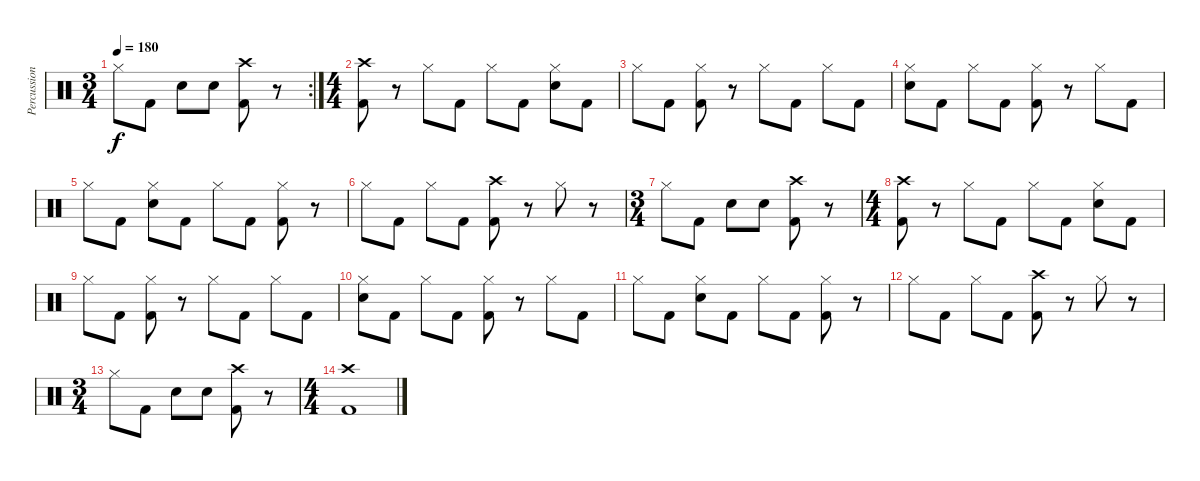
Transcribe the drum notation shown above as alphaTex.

\track ("Percussion" "Percussion") {instrument percussion}
\staff {score}
\articulation defaults
\rc 2
\ts (3 4)
\tempo 180
\clef neutral
\ks c "Hi-Hat (closed)".8{dy f} "Kick (hit) 2".8 "Snare (hit) 2".8 "Snare (hit) 2".8
("Crash high (hit)" "Kick (hit) 2").8 r.8 |
\ts (4 4)
("Crash high (hit)" "Kick (hit) 2").8 r.8 "Hi-Hat (closed)".8 "Kick (hit) 2".8 "Hi-Hat (closed)".8 "Kick (hit) 2".8 ("Hi-Hat (closed)" "Snare (hit) 2").8 "Kick (hit) 2".8 |
"Hi-Hat (closed)".8 "Kick (hit) 2".8 ("Hi-Hat (closed)" "Kick (hit) 2").8 r.8 "Hi-Hat (closed)".8 "Kick (hit) 2".8 "Hi-Hat (closed)".8 "Kick (hit) 2".8 |
("Hi-Hat (closed)" "Snare (hit) 2").8 "Kick (hit) 2".8 "Hi-Hat (closed)".8 "Kick (hit) 2".8 ("Hi-Hat (closed)" "Kick (hit) 2").8 r.8 "Hi-Hat (closed)".8 "Kick (hit) 2".8 |
"Hi-Hat (closed)".8 "Kick (hit) 2".8 ("Hi-Hat (closed)" "Snare (hit) 2").8 "Kick (hit) 2".8 "Hi-Hat (closed)".8 "Kick (hit) 2".8 ("Hi-Hat (closed)" "Kick (hit) 2").8 r.8 |
"Hi-Hat (closed)".8 "Kick (hit) 2".8 "Hi-Hat (closed)".8 "Kick (hit) 2".8 ("Crash high (hit)" "Kick (hit) 2").8 r.8 "Hi-Hat (closed)".8 r.8 |
\ts (3 4)
"Hi-Hat (closed)".8 "Kick (hit) 2".8 "Snare (hit) 2".8 "Snare (hit) 2".8 ("Crash high (hit)" "Kick (hit) 2").8 r.8 |
\ts (4 4)
("Crash high (hit)" "Kick (hit) 2").8 r.8 "Hi-Hat (closed)".8 "Kick (hit) 2".8 "Hi-Hat (closed)".8 "Kick (hit) 2".8 ("Hi-Hat (closed)" "Snare (hit) 2").8 "Kick (hit) 2".8 |
"Hi-Hat (closed)".8 "Kick (hit) 2".8 ("Hi-Hat (closed)" "Kick (hit) 2").8 r.8 "Hi-Hat (closed)".8 "Kick (hit) 2".8 "Hi-Hat (closed)".8 "Kick (hit) 2".8 |
("Hi-Hat (closed)" "Snare (hit) 2").8 "Kick (hit) 2".8 "Hi-Hat (closed)".8 "Kick (hit) 2".8 ("Hi-Hat (closed)" "Kick (hit) 2").8 r.8 "Hi-Hat (closed)".8 "Kick (hit) 2".8 |
"Hi-Hat (closed)".8 "Kick (hit) 2".8 ("Hi-Hat (closed)" "Snare (hit) 2").8 "Kick (hit) 2".8 "Hi-Hat (closed)".8 "Kick (hit) 2".8 ("Hi-Hat (closed)" "Kick (hit) 2").8 r.8 |
"Hi-Hat (closed)".8 "Kick (hit) 2".8 "Hi-Hat (closed)".8 "Kick (hit) 2".8 ("Crash high (hit)" "Kick (hit) 2").8 r.8 "Hi-Hat (closed)".8 r.8 |
\ts (3 4)
"Hi-Hat (closed)".8 "Kick (hit) 2".8 "Snare (hit) 2".8 "Snare (hit) 2".8 ("Crash high (hit)" "Kick (hit) 2").8 r.8 |
\ts (4 4)
("Crash high (hit)" "Kick (hit) 2").1
